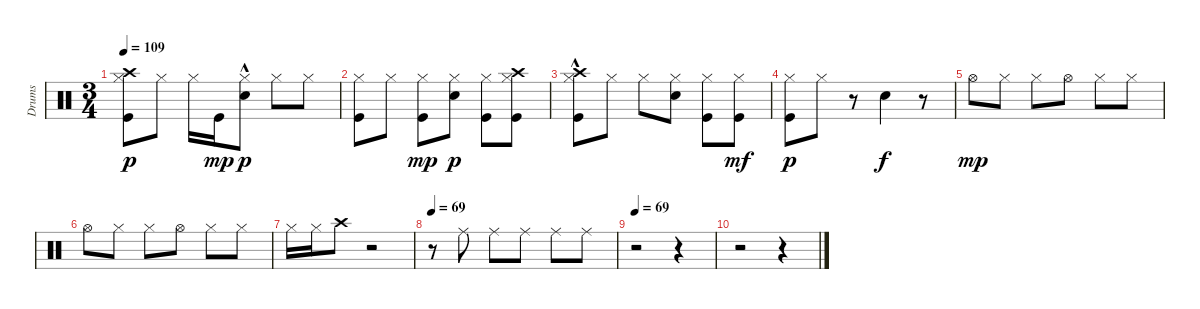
\track ("Drums" "Drums") {instrument percussion}
\staff {score}
\articulation defaults
\ts (3 4)
\tempo 109
\clef neutral
\ks c
("Crash high (hit)" "Hi-Hat (closed)" "Kick (hit)").8{dy p} "Hi-Hat (closed)".8 "Hi-Hat (closed)".16 "Kick (hit)".16{dy mp} ("Hi-Hat (closed)" "Electric Snare (hit)"{hac}).8{dy p} "Hi-Hat (closed)".8 "Hi-Hat (closed)".8 |
("Hi-Hat (closed)" "Kick (hit)").8 "Hi-Hat (closed)".8 ("Hi-Hat (closed)" "Kick (hit)").8{dy mp} ("Hi-Hat (closed)" "Electric Snare (hit)").8{dy p} ("Hi-Hat (closed)" "Kick (hit)").8 ("Crash high (hit)" "Hi-Hat (closed)" "Kick (hit)").8 |
("Crash high (hit)" "Hi-Hat (closed)" "Kick (hit)"{hac}).8 "Hi-Hat (closed)".8 "Hi-Hat (closed)".8 ("Hi-Hat (closed)" "Electric Snare (hit)").8 ("Hi-Hat (closed)" "Kick (hit)").8 ("Hi-Hat (closed)" "Kick (hit)").8{dy mf} |
("Hi-Hat (closed)" "Kick (hit)").8{dy p} "Hi-Hat (closed)".8 r.8 "Electric Snare (hit)".4{dy f} r.8 |
"Hi-Hat (open)".8{dy mp} "Hi-Hat (closed)".8 "Hi-Hat (closed)".8 "Hi-Hat (open)".8 "Hi-Hat (closed)".8 "Hi-Hat (closed)".8 |
"Hi-Hat (open)".8 "Hi-Hat (closed)".8 "Hi-Hat (closed)".8 "Hi-Hat (open)".8 "Hi-Hat (closed)".8 "Hi-Hat (closed)".8 |
"Hi-Hat (closed)".16 "Hi-Hat (closed)".16 "Crash high (hit)".8 r.2 |
\tempo 69
r.8 "Ride (middle)".8 "Ride (middle)".8 "Ride (middle)".8 "Ride (middle)".8 "Ride (middle)".8 |
\tempo 69
r.2 r.4 |
r.2 r.4
